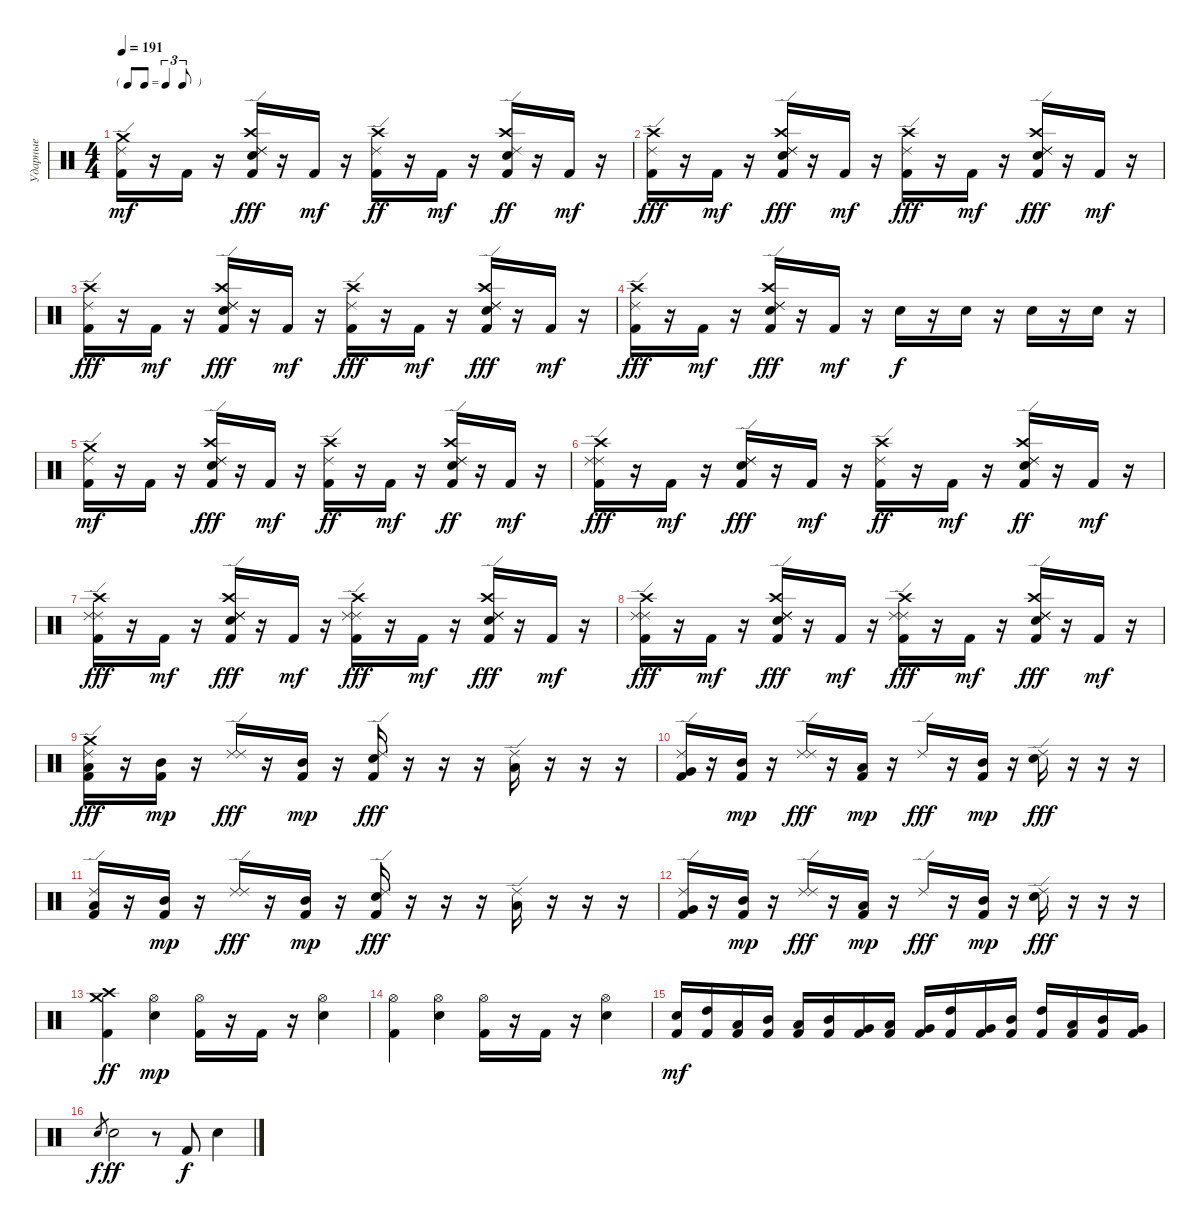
\track ("Ударные" "Ударные") {instrument percussion}
\staff {score}
\articulation defaults
\ts (4 4)
\tf triplet8th
\tempo 191
\clef neutral
\ks c
("Crash medium (hit)" "Kick (hit) 2" "Ride (edge) 2").16{dy mf} r.16 "Kick (hit) 2".16 r.16 ("Crash high (hit)" "Snare (hit) 2" "Kick (hit) 2" "Ride (edge) 2" "Ride (edge) 2").16{dy fff} r.16 "Kick (hit) 2".16{dy mf} r.16 ("Crash high (hit)" "Kick (hit) 2" "Ride (edge) 2").16{dy ff} r.16 "Kick (hit) 2".16{dy mf} r.16 ("Crash high (hit)" "Snare (hit) 2" "Kick (hit) 2" "Ride (edge) 2").16{dy ff} r.16 "Kick (hit) 2".16{dy mf} r.16 |
("Crash high (hit)" "Kick (hit) 2" "Ride (edge) 2").16{dy fff} r.16 "Kick (hit) 2".16{dy mf} r.16 ("Crash high (hit)" "Snare (hit) 2" "Kick (hit) 2" "Ride (edge) 2" "Ride (edge) 2").16{dy fff} r.16 "Kick (hit) 2".16{dy mf} r.16 ("Crash high (hit)" "Kick (hit) 2" "Ride (edge) 2").16{dy fff} r.16 "Kick (hit) 2".16{dy mf} r.16 ("Crash high (hit)" "Snare (hit) 2" "Kick (hit) 2" "Ride (edge) 2" "Ride (edge) 2").16{dy fff} r.16 "Kick (hit) 2".16{dy mf} r.16 |
("Crash high (hit)" "Kick (hit) 2" "Ride (edge) 2").16{dy fff} r.16 "Kick (hit) 2".16{dy mf} r.16 ("Crash high (hit)" "Snare (hit) 2" "Kick (hit) 2" "Ride (edge) 2" "Ride (edge) 2").16{dy fff} r.16 "Kick (hit) 2".16{dy mf} r.16 ("Crash high (hit)" "Kick (hit) 2" "Ride (edge) 2").16{dy fff} r.16 "Kick (hit) 2".16{dy mf} r.16 ("Crash high (hit)" "Snare (hit) 2" "Kick (hit) 2" "Ride (edge) 2" "Ride (edge) 2").16{dy fff} r.16 "Kick (hit) 2".16{dy mf} r.16 |
("Crash high (hit)" "Kick (hit) 2" "Ride (edge) 2").16{dy fff} r.16 "Kick (hit) 2".16{dy mf} r.16 ("Crash high (hit)" "Snare (hit) 2" "Kick (hit) 2" "Ride (edge) 2" "Ride (edge) 2").16{dy fff} r.16 "Kick (hit) 2".16{dy mf} r.16 "Snare (hit) 2".16{dy f} r.16 "Snare (hit) 2".16 r.16 "Snare (hit) 2".16 r.16 "Snare (hit) 2".16 r.16 |
("Crash medium (hit)" "Kick (hit) 2" "Ride (edge) 2").16{dy mf} r.16 "Kick (hit) 2".16 r.16 ("Crash high (hit)" "Snare (hit) 2" "Kick (hit) 2" "Ride (edge) 2" "Ride (edge) 2").16{dy fff} r.16 "Kick (hit) 2".16{dy mf} r.16 ("Crash high (hit)" "Kick (hit) 2" "Ride (edge) 2").16{dy ff} r.16 "Kick (hit) 2".16{dy mf} r.16 ("Crash high (hit)" "Snare (hit) 2" "Kick (hit) 2" "Ride (edge) 2" "Ride (edge) 2").16{dy ff} r.16 "Kick (hit) 2".16{dy mf} r.16 |
("Crash high (hit)" "Kick (hit) 2" "Ride (edge) 2" "Ride (edge) 2").16{dy fff} r.16 "Kick (hit) 2".16{dy mf} r.16 ("Snare (hit) 2" "Kick (hit) 2" "Ride (edge) 2" "Ride (edge) 2").16{dy fff} r.16 "Kick (hit) 2".16{dy mf} r.16 ("Crash high (hit)" "Kick (hit) 2" "Ride (edge) 2").16{dy ff} r.16 "Kick (hit) 2".16{dy mf} r.16 ("Crash high (hit)" "Snare (hit) 2" "Kick (hit) 2" "Ride (edge) 2" "Ride (edge) 2").16{dy ff} r.16 "Kick (hit) 2".16{dy mf} r.16 |
("Crash high (hit)" "Kick (hit) 2" "Ride (edge) 2" "Ride (edge) 2").16{dy fff} r.16 "Kick (hit) 2".16{dy mf} r.16 ("Crash high (hit)" "Snare (hit) 2" "Kick (hit) 2" "Ride (edge) 2" "Ride (edge) 2" "Ride (edge) 2").16{dy fff} r.16 "Kick (hit) 2".16{dy mf} r.16 ("Crash high (hit)" "Kick (hit) 2" "Ride (edge) 2" "Ride (edge) 2").16{dy fff} r.16 "Kick (hit) 2".16{dy mf} r.16 ("Crash high (hit)" "Snare (hit) 2" "Kick (hit) 2" "Ride (edge) 2" "Ride (edge) 2" "Ride (edge) 2").16{dy fff} r.16 "Kick (hit) 2".16{dy mf} r.16 |
("Crash high (hit)" "Kick (hit) 2" "Ride (edge) 2" "Ride (edge) 2").16{dy fff} r.16 "Kick (hit) 2".16{dy mf} r.16 ("Crash high (hit)" "Snare (hit) 2" "Kick (hit) 2" "Ride (edge) 2" "Ride (edge) 2" "Ride (edge) 2").16{dy fff} r.16 "Kick (hit) 2".16{dy mf} r.16 ("Crash high (hit)" "Kick (hit) 2" "Ride (edge) 2" "Ride (edge) 2").16{dy fff} r.16 "Kick (hit) 2".16{dy mf} r.16 ("Crash high (hit)" "Snare (hit) 2" "Kick (hit) 2" "Ride (edge) 2" "Ride (edge) 2" "Ride (edge) 2").16{dy fff} r.16 "Kick (hit) 2".16{dy mf} r.16 |
("Crash medium (hit)" "Low Tom (hit)" "Kick (hit) 2" "Ride (edge) 2").16{dy fff} r.16 ("Mid Tom (hit)" "Kick (hit) 2").16{dy mp} r.16 ("Ride (edge) 2" "Ride (edge) 2").16{dy fff} r.16 ("Mid Tom (hit)" "Kick (hit) 2").16{dy mp} r.16 ("Snare (hit) 2" "Kick (hit) 2" "Ride (edge) 2").16{dy fff} r.16 r.16 r.16 ("Low Tom (hit)" "Ride (edge) 2").16 r.16 r.16 r.16 |
("Very Low Tom (hit)" "Kick (hit) 2" "Ride (edge) 2").16 r.16 ("Mid Tom (hit)" "Kick (hit) 2").16{dy mp} r.16 ("Ride (edge) 2" "Ride (edge) 2").16{dy fff} r.16 ("Low Tom (hit)" "Kick (hit) 2").16{dy mp} r.16 "Ride (edge) 2".16{dy fff} r.16 ("Mid Tom (hit)" "Kick (hit) 2").16{dy mp} r.16 ("Snare (hit) 2" "Ride (edge) 2").16{dy fff} r.16 r.16 r.16 |
("Low Tom (hit)" "Kick (hit) 2" "Ride (edge) 2").16 r.16 ("Mid Tom (hit)" "Kick (hit) 2").16{dy mp} r.16 ("Ride (edge) 2" "Ride (edge) 2").16{dy fff} r.16 ("Mid Tom (hit)" "Kick (hit) 2").16{dy mp} r.16 ("Snare (hit) 2" "Kick (hit) 2" "Ride (edge) 2").16{dy fff} r.16 r.16 r.16 ("Low Tom (hit)" "Ride (edge) 2").16 r.16 r.16 r.16 |
("Very Low Tom (hit)" "Kick (hit) 2" "Ride (edge) 2").16 r.16 ("Mid Tom (hit)" "Kick (hit) 2").16{dy mp} r.16 ("Ride (edge) 2" "Ride (edge) 2").16{dy fff} r.16 ("Low Tom (hit)" "Kick (hit) 2").16{dy mp} r.16 "Ride (edge) 2".16{dy fff} r.16 ("Mid Tom (hit)" "Kick (hit) 2").16{dy mp} r.16 ("Snare (hit) 2" "Ride (edge) 2").16{dy fff} r.16 r.16 r.16 |
("Crash medium (hit)" "Kick (hit) 2" "Crash high (hit)").4{dy ff} ("Snare (hit) 2" "Hi-Hat (open)").4{dy mp} ("Kick (hit) 2" "Hi-Hat (open)").16 r.16 "Kick (hit) 2".16 r.16 ("Snare (hit) 2" "Hi-Hat (open)").4 |
("Kick (hit) 2" "Hi-Hat (open)").4 ("Snare (hit) 2" "Hi-Hat (open)").4 ("Kick (hit) 2" "Hi-Hat (open)").16 r.16 "Kick (hit) 2".16 r.16 ("Snare (hit) 2" "Hi-Hat (open)").4 |
("Electric Snare (hit)" "Kick (hit) 2").16{dy mf} ("High Tom (hit)" "Kick (hit) 2").16 ("Low Tom (hit)" "Kick (hit) 2").16 ("Mid Tom (hit)" "Kick (hit) 2").16 ("Low Tom (hit)" "Kick (hit) 2").16 ("Mid Tom (hit)" "Kick (hit) 2").16 ("Very Low Tom (hit)" "Kick (hit) 2").16 ("Low Tom (hit)" "Kick (hit) 2").16 ("Very Low Tom (hit)" "Kick (hit) 2").16 ("High Tom (hit)" "Kick (hit) 2").16 ("Very Low Tom (hit)" "Kick (hit) 2").16 ("Mid Tom (hit)" "Kick (hit) 2").16 ("High Tom (hit)" "Kick (hit) 2").16 ("Low Tom (hit)" "Kick (hit) 2").16 ("Mid Tom (hit)" "Kick (hit) 2").16 ("Very Low Tom (hit)" "Kick (hit) 2").16 |
"Electric Snare (hit)".8{gr dy f} "Electric Snare (hit)".2{dy ff} r.8 "Kick (hit) 2".8{dy f} "Electric Snare (hit)".4
